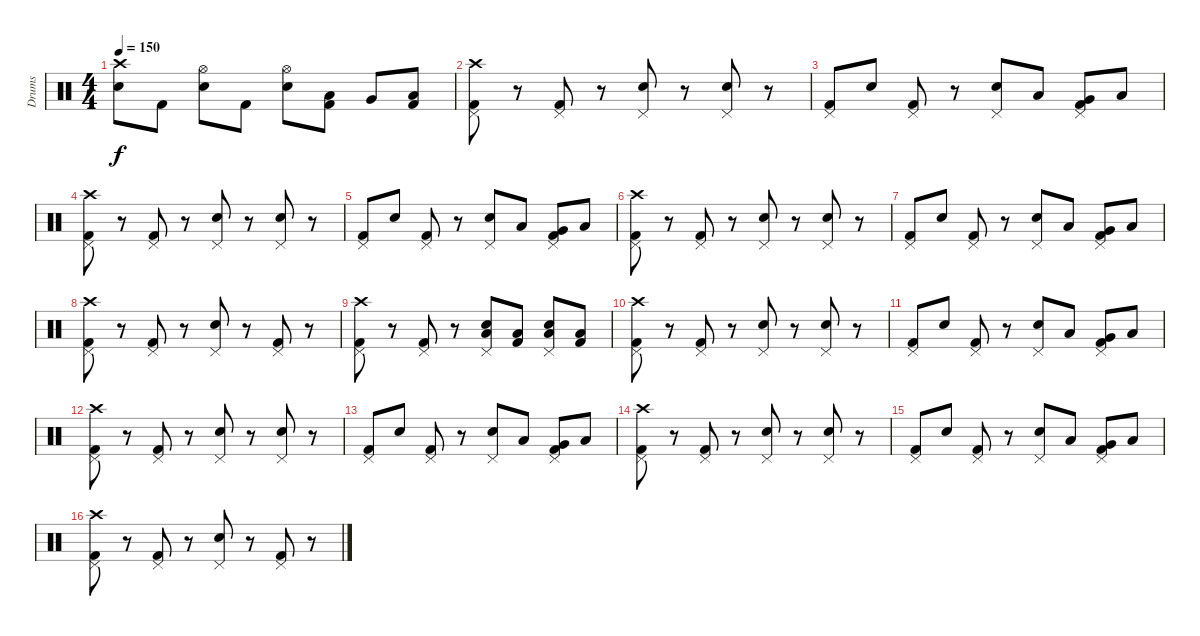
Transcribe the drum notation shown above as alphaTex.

\track ("Drums" "Drums") {instrument percussion}
\staff {score}
\articulation defaults
\ts (4 4)
\tempo 150
\clef neutral
\ks c
("Crash high (hit)" "Electric Snare (hit)").8{dy f} "Kick (hit) 2".8 ("Hi-Hat (open)" "Electric Snare (hit)").8 "Kick (hit) 2".8 ("Hi-Hat (open)" "Electric Snare (hit)").8 ("Low Tom (hit)" "Kick (hit) 2").8 "Very Low Tom (hit)".8 ("Low Floor Tom (hit)" "Kick (hit) 2").8 |
("Pedal Hi-Hat (hit)" "Crash high (hit)" "Kick (hit) 2").8 r.8 ("Pedal Hi-Hat (hit)" "Kick (hit) 2").8 r.8 ("Pedal Hi-Hat (hit)" "Electric Snare (hit)").8 r.8 ("Pedal Hi-Hat (hit)" "Electric Snare (hit)").8 r.8 |
("Pedal Hi-Hat (hit)" "Kick (hit) 2").8 "Electric Snare (hit)".8 ("Pedal Hi-Hat (hit)" "Kick (hit) 2").8 r.8 ("Pedal Hi-Hat (hit)" "Electric Snare (hit)").8 "Low Tom (hit)".8 ("Pedal Hi-Hat (hit)" "Very Low Tom (hit)" "Kick (hit) 2").8 "Low Floor Tom (hit)".8 |
("Pedal Hi-Hat (hit)" "Crash high (hit)" "Kick (hit) 2").8 r.8 ("Pedal Hi-Hat (hit)" "Kick (hit) 2").8 r.8 ("Pedal Hi-Hat (hit)" "Electric Snare (hit)").8 r.8 ("Pedal Hi-Hat (hit)" "Electric Snare (hit)").8 r.8 |
("Pedal Hi-Hat (hit)" "Kick (hit) 2").8 "Electric Snare (hit)".8 ("Pedal Hi-Hat (hit)" "Kick (hit) 2").8 r.8 ("Pedal Hi-Hat (hit)" "Electric Snare (hit)").8 "Low Tom (hit)".8 ("Pedal Hi-Hat (hit)" "Very Low Tom (hit)" "Kick (hit) 2").8 "Low Floor Tom (hit)".8 |
("Pedal Hi-Hat (hit)" "Crash high (hit)" "Kick (hit) 2").8 r.8 ("Pedal Hi-Hat (hit)" "Kick (hit) 2").8 r.8 ("Pedal Hi-Hat (hit)" "Electric Snare (hit)").8 r.8 ("Pedal Hi-Hat (hit)" "Electric Snare (hit)").8 r.8 |
("Pedal Hi-Hat (hit)" "Kick (hit) 2").8 "Electric Snare (hit)".8 ("Pedal Hi-Hat (hit)" "Kick (hit) 2").8 r.8 ("Pedal Hi-Hat (hit)" "Electric Snare (hit)").8 "Low Tom (hit)".8 ("Pedal Hi-Hat (hit)" "Very Low Tom (hit)" "Kick (hit) 2").8 "Low Floor Tom (hit)".8 |
("Pedal Hi-Hat (hit)" "Crash high (hit)" "Kick (hit) 2").8 r.8 ("Pedal Hi-Hat (hit)" "Kick (hit) 2").8 r.8 ("Pedal Hi-Hat (hit)" "Electric Snare (hit)").8 r.8 ("Pedal Hi-Hat (hit)" "Kick (hit) 2").8 r.8 |
("Pedal Hi-Hat (hit)" "Crash high (hit)" "Kick (hit) 2").8 r.8 ("Pedal Hi-Hat (hit)" "Kick (hit) 2").8 r.8 ("Pedal Hi-Hat (hit)" "Low Floor Tom (hit)" "Electric Snare (hit)").8 ("Low Floor Tom (hit)" "Kick (hit) 2").8 ("Pedal Hi-Hat (hit)" "Low Floor Tom (hit)" "Electric Snare (hit)").8 ("Low Floor Tom (hit)" "Kick (hit) 2").8 |
("Pedal Hi-Hat (hit)" "Crash high (hit)" "Kick (hit) 2").8 r.8 ("Pedal Hi-Hat (hit)" "Kick (hit) 2").8 r.8 ("Pedal Hi-Hat (hit)" "Electric Snare (hit)").8 r.8 ("Pedal Hi-Hat (hit)" "Electric Snare (hit)").8 r.8 |
("Pedal Hi-Hat (hit)" "Kick (hit) 2").8 "Electric Snare (hit)".8 ("Pedal Hi-Hat (hit)" "Kick (hit) 2").8 r.8 ("Pedal Hi-Hat (hit)" "Electric Snare (hit)").8 "Low Tom (hit)".8 ("Pedal Hi-Hat (hit)" "Very Low Tom (hit)" "Kick (hit) 2").8 "Low Floor Tom (hit)".8 |
("Pedal Hi-Hat (hit)" "Crash high (hit)" "Kick (hit) 2").8 r.8 ("Pedal Hi-Hat (hit)" "Kick (hit) 2").8 r.8 ("Pedal Hi-Hat (hit)" "Electric Snare (hit)").8 r.8 ("Pedal Hi-Hat (hit)" "Electric Snare (hit)").8 r.8 |
("Pedal Hi-Hat (hit)" "Kick (hit) 2").8 "Electric Snare (hit)".8 ("Pedal Hi-Hat (hit)" "Kick (hit) 2").8 r.8 ("Pedal Hi-Hat (hit)" "Electric Snare (hit)").8 "Low Tom (hit)".8 ("Pedal Hi-Hat (hit)" "Very Low Tom (hit)" "Kick (hit) 2").8 "Low Floor Tom (hit)".8 |
("Pedal Hi-Hat (hit)" "Crash high (hit)" "Kick (hit) 2").8 r.8 ("Pedal Hi-Hat (hit)" "Kick (hit) 2").8 r.8 ("Pedal Hi-Hat (hit)" "Electric Snare (hit)").8 r.8 ("Pedal Hi-Hat (hit)" "Electric Snare (hit)").8 r.8 |
("Pedal Hi-Hat (hit)" "Kick (hit) 2").8 "Electric Snare (hit)".8 ("Pedal Hi-Hat (hit)" "Kick (hit) 2").8 r.8 ("Pedal Hi-Hat (hit)" "Electric Snare (hit)").8 "Low Tom (hit)".8 ("Pedal Hi-Hat (hit)" "Very Low Tom (hit)" "Kick (hit) 2").8 "Low Floor Tom (hit)".8 |
("Pedal Hi-Hat (hit)" "Crash high (hit)" "Kick (hit) 2").8 r.8 ("Pedal Hi-Hat (hit)" "Kick (hit) 2").8 r.8 ("Pedal Hi-Hat (hit)" "Electric Snare (hit)").8 r.8 ("Pedal Hi-Hat (hit)" "Kick (hit) 2").8 r.8
